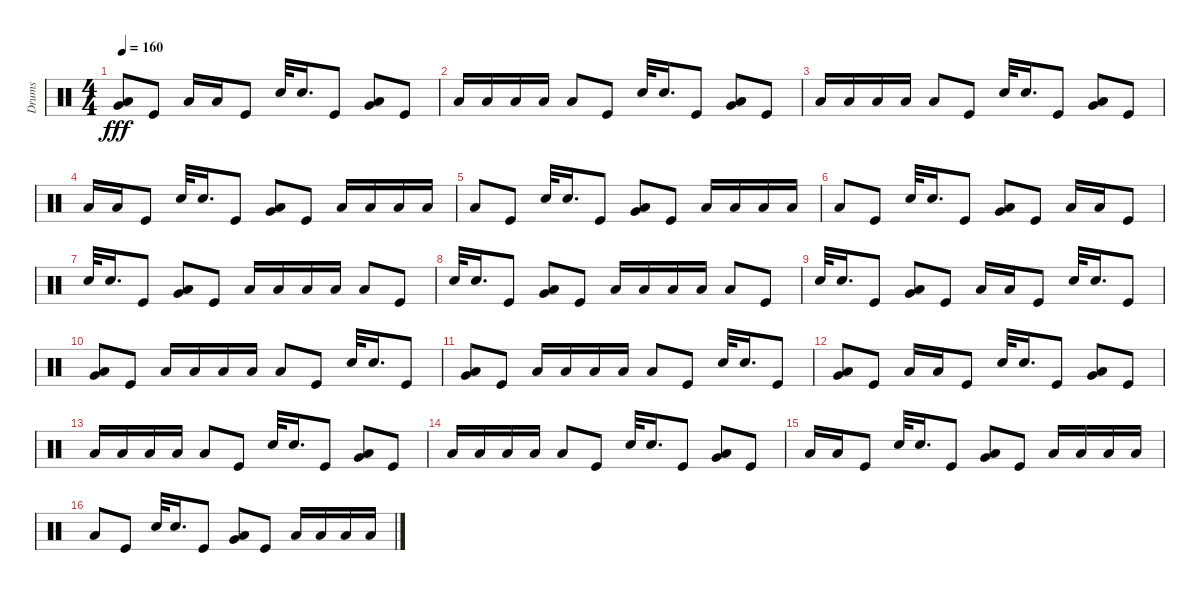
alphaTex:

\track ("Drums" "Drums") {instrument percussion}
\staff {score}
\articulation defaults
\ts (4 4)
\tempo 160
\clef neutral
\ks c
("Low Floor Tom (hit)" "Very Low Tom (hit)").8{dy fff} "Kick (hit)".8 "Low Floor Tom (hit)".16 "Low Floor Tom (hit)".16 "Kick (hit)".8 "Electric Snare (hit)".32 "Electric Snare (hit)".16{d} "Kick (hit)".8 ("Low Floor Tom (hit)" "Very Low Tom (hit)").8 "Kick (hit)".8 |
"Low Floor Tom (hit)".16 "Low Floor Tom (hit)".16 "Low Floor Tom (hit)".16 "Low Floor Tom (hit)".16 "Low Floor Tom (hit)".8 "Kick (hit)".8 "Electric Snare (hit)".32 "Electric Snare (hit)".16{d} "Kick (hit)".8 ("Low Floor Tom (hit)" "Very Low Tom (hit)").8 "Kick (hit)".8 |
"Low Floor Tom (hit)".16 "Low Floor Tom (hit)".16 "Low Floor Tom (hit)".16 "Low Floor Tom (hit)".16 "Low Floor Tom (hit)".8 "Kick (hit)".8 "Electric Snare (hit)".32 "Electric Snare (hit)".16{d} "Kick (hit)".8 ("Low Floor Tom (hit)" "Very Low Tom (hit)").8 "Kick (hit)".8 |
"Low Floor Tom (hit)".16 "Low Floor Tom (hit)".16 "Kick (hit)".8 "Electric Snare (hit)".32 "Electric Snare (hit)".16{d} "Kick (hit)".8 ("Low Floor Tom (hit)" "Very Low Tom (hit)").8 "Kick (hit)".8 "Low Floor Tom (hit)".16 "Low Floor Tom (hit)".16 "Low Floor Tom (hit)".16 "Low Floor Tom (hit)".16 |
"Low Floor Tom (hit)".8 "Kick (hit)".8 "Electric Snare (hit)".32 "Electric Snare (hit)".16{d} "Kick (hit)".8 ("Low Floor Tom (hit)" "Very Low Tom (hit)").8 "Kick (hit)".8 "Low Floor Tom (hit)".16 "Low Floor Tom (hit)".16 "Low Floor Tom (hit)".16 "Low Floor Tom (hit)".16 |
"Low Floor Tom (hit)".8 "Kick (hit)".8 "Electric Snare (hit)".32 "Electric Snare (hit)".16{d} "Kick (hit)".8 ("Low Floor Tom (hit)" "Very Low Tom (hit)").8 "Kick (hit)".8 "Low Floor Tom (hit)".16 "Low Floor Tom (hit)".16 "Kick (hit)".8 |
"Electric Snare (hit)".32 "Electric Snare (hit)".16{d} "Kick (hit)".8 ("Low Floor Tom (hit)" "Very Low Tom (hit)").8 "Kick (hit)".8 "Low Floor Tom (hit)".16 "Low Floor Tom (hit)".16 "Low Floor Tom (hit)".16 "Low Floor Tom (hit)".16 "Low Floor Tom (hit)".8 "Kick (hit)".8 |
"Electric Snare (hit)".32 "Electric Snare (hit)".16{d} "Kick (hit)".8 ("Low Floor Tom (hit)" "Very Low Tom (hit)").8 "Kick (hit)".8 "Low Floor Tom (hit)".16 "Low Floor Tom (hit)".16 "Low Floor Tom (hit)".16 "Low Floor Tom (hit)".16 "Low Floor Tom (hit)".8 "Kick (hit)".8 |
"Electric Snare (hit)".32 "Electric Snare (hit)".16{d} "Kick (hit)".8 ("Low Floor Tom (hit)" "Very Low Tom (hit)").8 "Kick (hit)".8 "Low Floor Tom (hit)".16 "Low Floor Tom (hit)".16 "Kick (hit)".8 "Electric Snare (hit)".32 "Electric Snare (hit)".16{d} "Kick (hit)".8 |
("Low Floor Tom (hit)" "Very Low Tom (hit)").8 "Kick (hit)".8 "Low Floor Tom (hit)".16 "Low Floor Tom (hit)".16 "Low Floor Tom (hit)".16 "Low Floor Tom (hit)".16 "Low Floor Tom (hit)".8 "Kick (hit)".8 "Electric Snare (hit)".32 "Electric Snare (hit)".16{d} "Kick (hit)".8 |
("Low Floor Tom (hit)" "Very Low Tom (hit)").8 "Kick (hit)".8 "Low Floor Tom (hit)".16 "Low Floor Tom (hit)".16 "Low Floor Tom (hit)".16 "Low Floor Tom (hit)".16 "Low Floor Tom (hit)".8 "Kick (hit)".8 "Electric Snare (hit)".32 "Electric Snare (hit)".16{d} "Kick (hit)".8 |
("Low Floor Tom (hit)" "Very Low Tom (hit)").8 "Kick (hit)".8 "Low Floor Tom (hit)".16 "Low Floor Tom (hit)".16 "Kick (hit)".8 "Electric Snare (hit)".32 "Electric Snare (hit)".16{d} "Kick (hit)".8 ("Low Floor Tom (hit)" "Very Low Tom (hit)").8 "Kick (hit)".8 |
"Low Floor Tom (hit)".16 "Low Floor Tom (hit)".16 "Low Floor Tom (hit)".16 "Low Floor Tom (hit)".16 "Low Floor Tom (hit)".8 "Kick (hit)".8 "Electric Snare (hit)".32 "Electric Snare (hit)".16{d} "Kick (hit)".8 ("Low Floor Tom (hit)" "Very Low Tom (hit)").8 "Kick (hit)".8 |
"Low Floor Tom (hit)".16 "Low Floor Tom (hit)".16 "Low Floor Tom (hit)".16 "Low Floor Tom (hit)".16 "Low Floor Tom (hit)".8 "Kick (hit)".8 "Electric Snare (hit)".32 "Electric Snare (hit)".16{d} "Kick (hit)".8 ("Low Floor Tom (hit)" "Very Low Tom (hit)").8 "Kick (hit)".8 |
"Low Floor Tom (hit)".16 "Low Floor Tom (hit)".16 "Kick (hit)".8 "Electric Snare (hit)".32 "Electric Snare (hit)".16{d} "Kick (hit)".8 ("Low Floor Tom (hit)" "Very Low Tom (hit)").8 "Kick (hit)".8 "Low Floor Tom (hit)".16 "Low Floor Tom (hit)".16 "Low Floor Tom (hit)".16 "Low Floor Tom (hit)".16 |
"Low Floor Tom (hit)".8 "Kick (hit)".8 "Electric Snare (hit)".32 "Electric Snare (hit)".16{d} "Kick (hit)".8 ("Low Floor Tom (hit)" "Very Low Tom (hit)").8 "Kick (hit)".8 "Low Floor Tom (hit)".16 "Low Floor Tom (hit)".16 "Low Floor Tom (hit)".16 "Low Floor Tom (hit)".16
